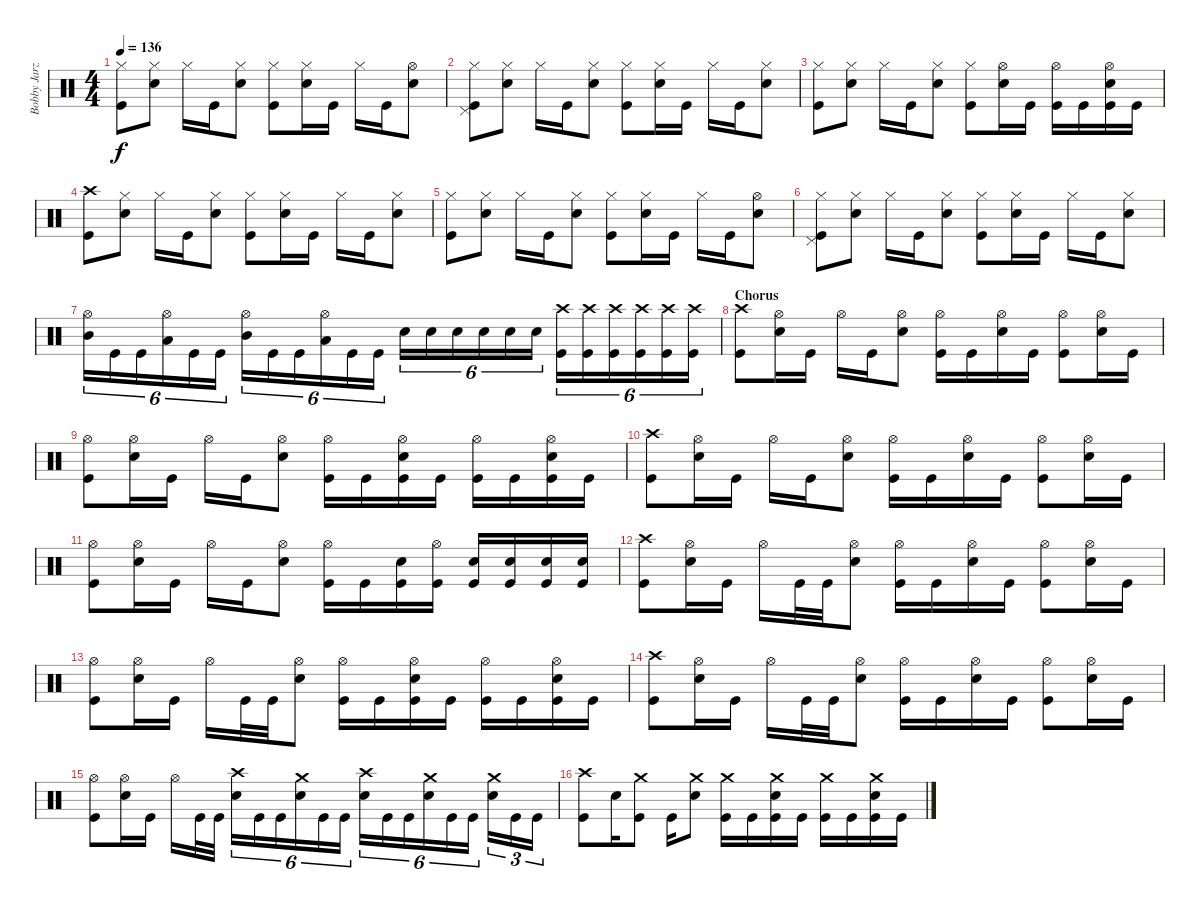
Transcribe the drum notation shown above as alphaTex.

\track ("Bobby Jarzombek" "Bobby Jarz") {instrument percussion}
\staff {score}
\articulation defaults
\ts (4 4)
\tempo 136
\clef neutral
\ks c
("Hi-Hat (closed)" "Kick (hit)").8{dy f} ("Hi-Hat (closed)" "Electric Snare (hit)").8 "Hi-Hat (closed)".16 "Kick (hit)".16 ("Hi-Hat (closed)" "Electric Snare (hit)").8 ("Hi-Hat (closed)" "Kick (hit)").8 ("Hi-Hat (closed)" "Electric Snare (hit)").16 "Kick (hit)".16 "Hi-Hat (closed)".16 "Kick (hit)".16 ("Hi-Hat (open)" "Electric Snare (hit)").8 |
("Hi-Hat (closed)" "Pedal Hi-Hat (hit)" "Kick (hit)").8 ("Hi-Hat (closed)" "Electric Snare (hit)").8 "Hi-Hat (closed)".16 "Kick (hit)".16 ("Hi-Hat (closed)" "Electric Snare (hit)").8 ("Hi-Hat (closed)" "Kick (hit)").8 ("Hi-Hat (closed)" "Electric Snare (hit)").16 "Kick (hit)".16 "Hi-Hat (closed)".16 "Kick (hit)".16 ("Hi-Hat (closed)" "Electric Snare (hit)").8 |
("Hi-Hat (closed)" "Kick (hit)").8 ("Hi-Hat (closed)" "Electric Snare (hit)").8 "Hi-Hat (closed)".16 "Kick (hit)".16 ("Hi-Hat (closed)" "Electric Snare (hit)").8 ("Hi-Hat (closed)" "Kick (hit)").8 ("Hi-Hat (open)" "Electric Snare (hit)").16 "Kick (hit)".16 ("Hi-Hat (open)" "Kick (hit)").16 "Kick (hit)".16 ("Hi-Hat (open)" "Electric Snare (hit)" "Kick (hit)").16 "Kick (hit)".16 |
("Crash high (hit)" "Kick (hit)").8 ("Hi-Hat (closed)" "Electric Snare (hit)").8 "Hi-Hat (closed)".16 "Kick (hit)".16 ("Hi-Hat (closed)" "Electric Snare (hit)").8 ("Hi-Hat (closed)" "Kick (hit)").8 ("Hi-Hat (closed)" "Electric Snare (hit)").16 "Kick (hit)".16 "Hi-Hat (closed)".16 "Kick (hit)".16 ("Hi-Hat (closed)" "Electric Snare (hit)").8 |
("Hi-Hat (closed)" "Kick (hit)").8 ("Hi-Hat (closed)" "Electric Snare (hit)").8 "Hi-Hat (closed)".16 "Kick (hit)".16 ("Hi-Hat (closed)" "Electric Snare (hit)").8 ("Hi-Hat (closed)" "Kick (hit)").8 ("Hi-Hat (closed)" "Electric Snare (hit)").16 "Kick (hit)".16 "Hi-Hat (closed)".16 "Kick (hit)".16 ("Hi-Hat (open)" "Electric Snare (hit)").8 |
("Hi-Hat (closed)" "Pedal Hi-Hat (hit)" "Kick (hit)").8 ("Hi-Hat (closed)" "Electric Snare (hit)").8 "Hi-Hat (closed)".16 "Kick (hit)".16 ("Hi-Hat (closed)" "Electric Snare (hit)").8 ("Hi-Hat (closed)" "Kick (hit)").8 ("Hi-Hat (closed)" "Electric Snare (hit)").16 "Kick (hit)".16 "Hi-Hat (closed)".16 "Kick (hit)".16 ("Hi-Hat (closed)" "Electric Snare (hit)").8 |
("Hi-Hat (open)" "Mid Tom (hit)").16{tu (6 4)} "Kick (hit)".16{tu (6 4)} "Kick (hit)".16{tu (6 4)} ("Hi-Hat (open)" "Low Tom (hit)").16{tu (6 4)} "Kick (hit)".16{tu (6 4)} "Kick (hit)".16{tu (6 4)} ("Hi-Hat (open)" "Mid Tom (hit)").16{tu (6 4)} "Kick (hit)".16{tu (6 4)} "Kick (hit)".16{tu (6 4)} ("Hi-Hat (open)" "Low Tom (hit)").16{tu (6 4)} "Kick (hit)".16{tu (6 4)} "Kick (hit)".16{tu (6 4)} "Electric Snare (hit)".16{tu (6 4)} "Electric Snare (hit)".16{tu (6 4)} "Electric Snare (hit)".16{tu (6 4)} "Electric Snare (hit)".16{tu (6 4)} "Electric Snare (hit)".16{tu (6 4)} "Electric Snare (hit)".16{tu (6 4)} ("Crash high (hit)" "Kick (hit)").16{tu (6 4)} ("Crash high (hit)" "Kick (hit)").16{tu (6 4)} ("Crash high (hit)" "Kick (hit)").16{tu (6 4)} ("Crash high (hit)" "Kick (hit)").16{tu (6 4)} ("Crash high (hit)" "Kick (hit)").16{tu (6 4)} ("Crash high (hit)" "Kick (hit)").16{tu (6 4)} |
\section ("" "Chorus")
("Crash high (hit)" "Kick (hit)").8 ("Hi-Hat (open)" "Electric Snare (hit)").16 "Kick (hit)".16 "Hi-Hat (open)".16 "Kick (hit)".16 ("Hi-Hat (open)" "Electric Snare (hit)").8 ("Hi-Hat (open)" "Kick (hit)").16 "Kick (hit)".16 ("Hi-Hat (open)" "Electric Snare (hit)").16 "Kick (hit)".16 ("Hi-Hat (open)" "Kick (hit)").8 ("Hi-Hat (open)" "Electric Snare (hit)").16 "Kick (hit)".16 |
("Hi-Hat (open)" "Kick (hit)").8 ("Hi-Hat (open)" "Electric Snare (hit)").16 "Kick (hit)".16 "Hi-Hat (open)".16 "Kick (hit)".16 ("Hi-Hat (open)" "Electric Snare (hit)").8 ("Hi-Hat (open)" "Kick (hit)").16 "Kick (hit)".16 ("Hi-Hat (open)" "Electric Snare (hit)" "Kick (hit)").16 "Kick (hit)".16 ("Hi-Hat (open)" "Kick (hit)").16 "Kick (hit)".16 ("Hi-Hat (open)" "Electric Snare (hit)" "Kick (hit)").16 "Kick (hit)".16 |
("Crash high (hit)" "Kick (hit)").8 ("Hi-Hat (open)" "Electric Snare (hit)").16 "Kick (hit)".16 "Hi-Hat (open)".16 "Kick (hit)".16 ("Hi-Hat (open)" "Electric Snare (hit)").8 ("Hi-Hat (open)" "Kick (hit)").16 "Kick (hit)".16 ("Hi-Hat (open)" "Electric Snare (hit)").16 "Kick (hit)".16 ("Hi-Hat (open)" "Kick (hit)").8 ("Hi-Hat (open)" "Electric Snare (hit)").16 "Kick (hit)".16 |
("Hi-Hat (open)" "Kick (hit)").8 ("Hi-Hat (open)" "Electric Snare (hit)").16 "Kick (hit)".16 "Hi-Hat (open)".16 "Kick (hit)".16 ("Hi-Hat (open)" "Electric Snare (hit)").8 ("Hi-Hat (open)" "Kick (hit)").16 "Kick (hit)".16 ("Electric Snare (hit)" "Kick (hit)").16 ("Hi-Hat (open)" "Kick (hit)").16 ("Electric Snare (hit)" "Kick (hit)").16 ("Electric Snare (hit)" "Kick (hit)").16 ("Electric Snare (hit)" "Kick (hit)").16 ("Electric Snare (hit)" "Kick (hit)").16 |
("Crash high (hit)" "Kick (hit)").8 ("Hi-Hat (open)" "Electric Snare (hit)").16 "Kick (hit)".16 "Hi-Hat (open)".16 "Kick (hit)".32 "Kick (hit)".32 ("Hi-Hat (open)" "Electric Snare (hit)").8 ("Hi-Hat (open)" "Kick (hit)").16 "Kick (hit)".16 ("Hi-Hat (open)" "Electric Snare (hit)").16 "Kick (hit)".16 ("Hi-Hat (open)" "Kick (hit)").8 ("Hi-Hat (open)" "Electric Snare (hit)").16 "Kick (hit)".16 |
("Hi-Hat (open)" "Kick (hit)").8 ("Hi-Hat (open)" "Electric Snare (hit)").16 "Kick (hit)".16 "Hi-Hat (open)".16 "Kick (hit)".32 "Kick (hit)".32 ("Hi-Hat (open)" "Electric Snare (hit)").8 ("Hi-Hat (open)" "Kick (hit)").16 "Kick (hit)".16 ("Hi-Hat (open)" "Electric Snare (hit)" "Kick (hit)").16 "Kick (hit)".16 ("Hi-Hat (open)" "Kick (hit)").16 "Kick (hit)".16 ("Hi-Hat (open)" "Electric Snare (hit)" "Kick (hit)").16 "Kick (hit)".16 |
("Crash high (hit)" "Kick (hit)").8 ("Hi-Hat (open)" "Electric Snare (hit)").16 "Kick (hit)".16 "Hi-Hat (open)".16 "Kick (hit)".32 "Kick (hit)".32 ("Hi-Hat (open)" "Electric Snare (hit)").8 ("Hi-Hat (open)" "Kick (hit)").16 "Kick (hit)".16 ("Hi-Hat (open)" "Electric Snare (hit)").16 "Kick (hit)".16 ("Hi-Hat (open)" "Kick (hit)").8 ("Hi-Hat (open)" "Electric Snare (hit)").16 "Kick (hit)".16 |
("Hi-Hat (open)" "Kick (hit)").8 ("Hi-Hat (open)" "Electric Snare (hit)").16 "Kick (hit)".16 "Hi-Hat (open)".16 "Kick (hit)".32 "Kick (hit)".32 ("Crash high (hit)" "Electric Snare (hit)").16{tu (6 4)} "Kick (hit)".16{tu (6 4)} "Kick (hit)".16{tu (6 4)} ("Crash medium (hit)" "Electric Snare (hit)").16{tu (6 4)} "Kick (hit)".16{tu (6 4)} "Kick (hit)".16{tu (6 4)} ("Crash high (hit)" "Electric Snare (hit)").16{tu (6 4)} "Kick (hit)".16{tu (6 4)} "Kick (hit)".16{tu (6 4)} ("Crash medium (hit)" "Electric Snare (hit)").16{tu (6 4)} "Kick (hit)".16{tu (6 4)} "Kick (hit)".16{tu (6 4)} ("Crash medium (hit)" "Electric Snare (hit)").16{tu (3 2)} "Kick (hit)".16{tu (3 2)} "Kick (hit)".16{tu (3 2)} |
("Crash high (hit)" "Kick (hit)").8 "Electric Snare (hit)".16 ("Crash medium (hit)" "Kick (hit)").8 "Kick (hit)".16 ("Crash medium (hit)" "Electric Snare (hit)").8 ("Crash medium (hit)" "Kick (hit)").16 "Kick (hit)".16 ("Crash medium (hit)" "Electric Snare (hit)" "Kick (hit)").16 "Kick (hit)".16 ("Crash medium (hit)" "Kick (hit)").16 "Kick (hit)".16 ("Crash medium (hit)" "Electric Snare (hit)" "Kick (hit)").16 "Kick (hit)".16
